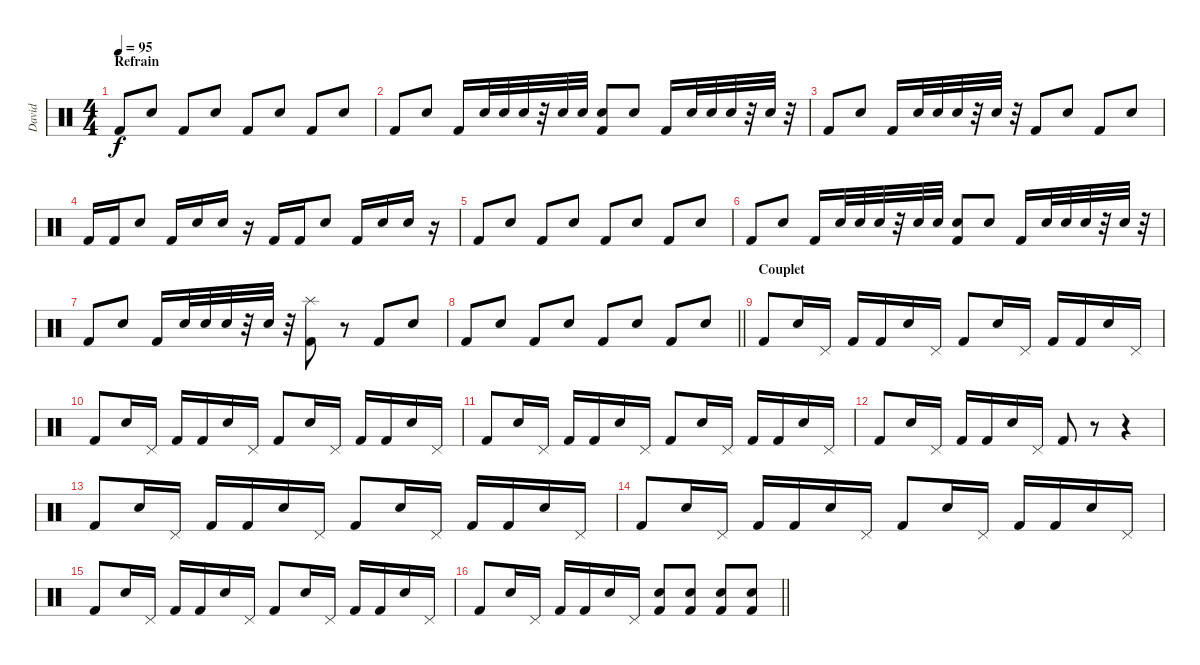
\track ("David" "David") {instrument percussion}
\staff {score}
\articulation defaults
\ts (4 4)
\section ("" "Refrain")
\tempo 95
\clef neutral
\ks c "Kick (hit) 2".8{dy f} "Electric Snare (hit)".8 "Kick (hit) 2".8 "Electric Snare (hit)".8 "Kick (hit) 2".8 "Electric Snare (hit)".8 "Kick (hit) 2".8 "Electric Snare (hit)".8
|
"Kick (hit) 2".8 "Electric Snare (hit)".8 "Kick (hit) 2".16 "Electric Snare (hit)".32 "Electric Snare (hit)".32 "Electric Snare (hit)".32 r.32 "Electric Snare (hit)".32 "Electric Snare (hit)".32 ("Electric Snare (hit)" "Kick (hit) 2").8 "Electric Snare (hit)".8 "Kick (hit) 2".16 "Electric Snare (hit)".32 "Electric Snare (hit)".32 "Electric Snare (hit)".32 r.32 "Electric Snare (hit)".32 r.32 |
"Kick (hit) 2".8 "Electric Snare (hit)".8 "Kick (hit) 2".16 "Electric Snare (hit)".32 "Electric Snare (hit)".32 "Electric Snare (hit)".32 r.32 "Electric Snare (hit)".32 r.32 "Kick (hit) 2".8 "Electric Snare (hit)".8 "Kick (hit) 2".8 "Electric Snare (hit)".8 |
"Kick (hit) 2".16 "Kick (hit) 2".16 "Electric Snare (hit)".8 "Kick (hit) 2".16 "Electric Snare (hit)".16 "Electric Snare (hit)".16 r.16 "Kick (hit) 2".16 "Kick (hit) 2".16 "Electric Snare (hit)".8 "Kick (hit) 2".16 "Electric Snare (hit)".16 "Electric Snare (hit)".16 r.16 |
"Kick (hit) 2".8 "Electric Snare (hit)".8 "Kick (hit) 2".8 "Electric Snare (hit)".8 "Kick (hit) 2".8 "Electric Snare (hit)".8 "Kick (hit) 2".8 "Electric Snare (hit)".8 |
"Kick (hit) 2".8 "Electric Snare (hit)".8 "Kick (hit) 2".16 "Electric Snare (hit)".32 "Electric Snare (hit)".32 "Electric Snare (hit)".32 r.32 "Electric Snare (hit)".32 "Electric Snare (hit)".32 ("Electric Snare (hit)" "Kick (hit) 2").8 "Electric Snare (hit)".8 "Kick (hit) 2".16 "Electric Snare (hit)".32 "Electric Snare (hit)".32 "Electric Snare (hit)".32 r.32 "Electric Snare (hit)".32 r.32 |
"Kick (hit) 2".8 "Electric Snare (hit)".8 "Kick (hit) 2".16 "Electric Snare (hit)".32 "Electric Snare (hit)".32 "Electric Snare (hit)".32 r.32 "Electric Snare (hit)".32 r.32 ("Splash (hit)" "Kick (hit) 2").8 r.8 "Kick (hit) 2".8 "Electric Snare (hit)".8 |
\barLineRight lightlight "Kick (hit) 2".8 "Electric Snare (hit)".8 "Kick (hit) 2".8 "Electric Snare (hit)".8 "Kick (hit) 2".8 "Electric Snare (hit)".8 "Kick (hit) 2".8 "Electric Snare (hit)".8
|
\section ("" "Couplet")
"Kick (hit) 2".8 "Electric Snare (hit)".16 "Pedal Hi-Hat (hit)".16 "Kick (hit) 2".16 "Kick (hit) 2".16 "Electric Snare (hit)".16 "Pedal Hi-Hat (hit)".16 "Kick (hit) 2".8 "Electric Snare (hit)".16 "Pedal Hi-Hat (hit)".16 "Kick (hit) 2".16 "Kick (hit) 2".16 "Electric Snare (hit)".16 "Pedal Hi-Hat (hit)".16 |
"Kick (hit) 2".8 "Electric Snare (hit)".16 "Pedal Hi-Hat (hit)".16 "Kick (hit) 2".16 "Kick (hit) 2".16 "Electric Snare (hit)".16 "Pedal Hi-Hat (hit)".16 "Kick (hit) 2".8 "Electric Snare (hit)".16 "Pedal Hi-Hat (hit)".16 "Kick (hit) 2".16 "Kick (hit) 2".16 "Electric Snare (hit)".16 "Pedal Hi-Hat (hit)".16 |
"Kick (hit) 2".8 "Electric Snare (hit)".16 "Pedal Hi-Hat (hit)".16 "Kick (hit) 2".16 "Kick (hit) 2".16 "Electric Snare (hit)".16 "Pedal Hi-Hat (hit)".16 "Kick (hit) 2".8 "Electric Snare (hit)".16 "Pedal Hi-Hat (hit)".16 "Kick (hit) 2".16 "Kick (hit) 2".16 "Electric Snare (hit)".16 "Pedal Hi-Hat (hit)".16 |
"Kick (hit) 2".8 "Electric Snare (hit)".16 "Pedal Hi-Hat (hit)".16 "Kick (hit) 2".16 "Kick (hit) 2".16 "Electric Snare (hit)".16 "Pedal Hi-Hat (hit)".16 "Kick (hit) 2".8 r.8 r.4 |
"Kick (hit) 2".8 "Electric Snare (hit)".16 "Pedal Hi-Hat (hit)".16 "Kick (hit) 2".16 "Kick (hit) 2".16 "Electric Snare (hit)".16 "Pedal Hi-Hat (hit)".16 "Kick (hit) 2".8 "Electric Snare (hit)".16 "Pedal Hi-Hat (hit)".16 "Kick (hit) 2".16 "Kick (hit) 2".16 "Electric Snare (hit)".16 "Pedal Hi-Hat (hit)".16 |
"Kick (hit) 2".8 "Electric Snare (hit)".16 "Pedal Hi-Hat (hit)".16 "Kick (hit) 2".16 "Kick (hit) 2".16 "Electric Snare (hit)".16 "Pedal Hi-Hat (hit)".16 "Kick (hit) 2".8 "Electric Snare (hit)".16 "Pedal Hi-Hat (hit)".16 "Kick (hit) 2".16 "Kick (hit) 2".16 "Electric Snare (hit)".16 "Pedal Hi-Hat (hit)".16 |
"Kick (hit) 2".8 "Electric Snare (hit)".16 "Pedal Hi-Hat (hit)".16 "Kick (hit) 2".16 "Kick (hit) 2".16 "Electric Snare (hit)".16 "Pedal Hi-Hat (hit)".16 "Kick (hit) 2".8 "Electric Snare (hit)".16 "Pedal Hi-Hat (hit)".16 "Kick (hit) 2".16 "Kick (hit) 2".16 "Electric Snare (hit)".16 "Pedal Hi-Hat (hit)".16 |
\barLineRight lightlight "Kick (hit) 2".8 "Electric Snare (hit)".16 "Pedal Hi-Hat (hit)".16 "Kick (hit) 2".16 "Kick (hit) 2".16 "Electric Snare (hit)".16 "Pedal Hi-Hat (hit)".16
("Electric Snare (hit)" "Kick (hit) 2").8 ("Electric Snare (hit)" "Kick (hit) 2").8 ("Electric Snare (hit)" "Kick (hit) 2").8 ("Electric Snare (hit)" "Kick (hit) 2").8
